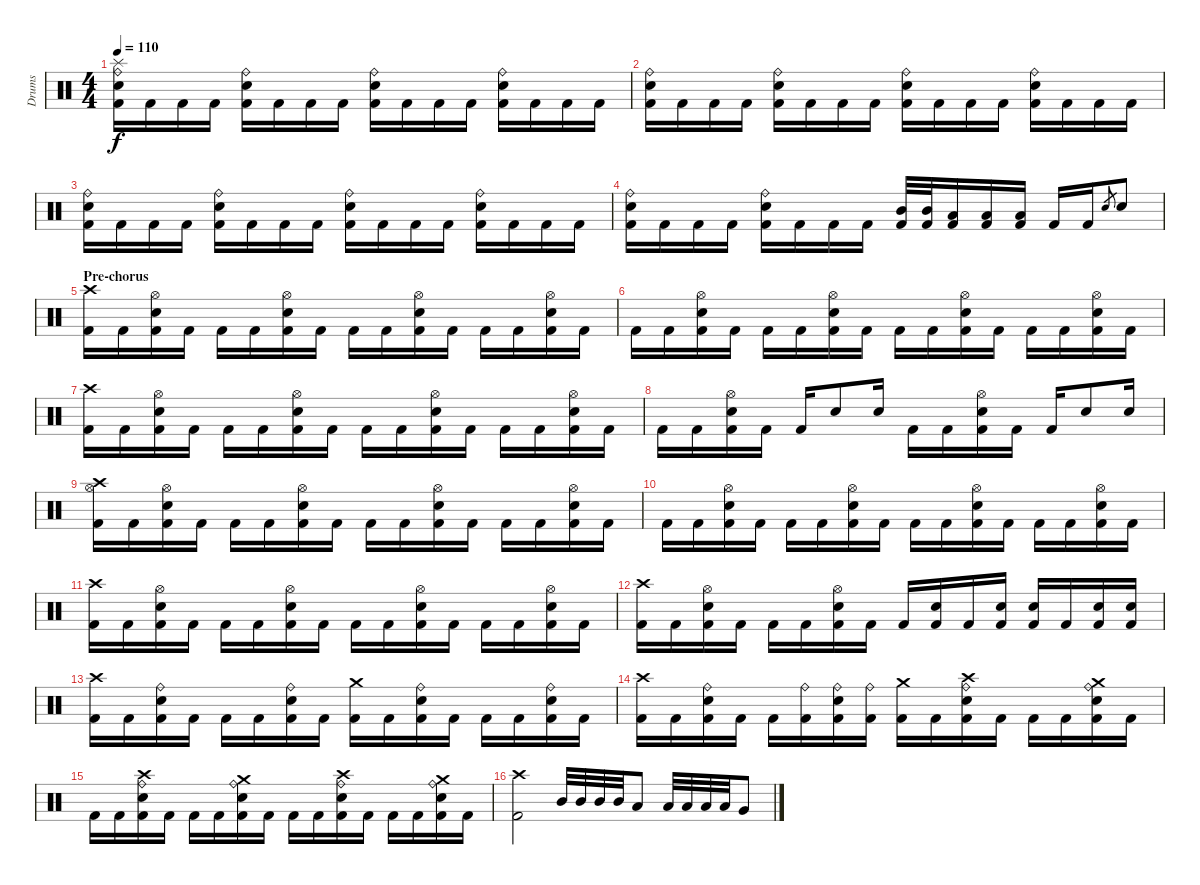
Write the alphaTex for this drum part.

\track ("Drums" "Drums") {instrument percussion}
\staff {score}
\articulation defaults
\ts (4 4)
\tempo 110
\clef neutral
\ks c
("Kick (hit) 2" "Electric Snare (hit)" "Ride (bell)" "Splash (hit)").16{dy f} "Kick (hit) 2".16 "Kick (hit) 2".16 "Kick (hit) 2".16 ("Kick (hit) 2" "Electric Snare (hit)" "Ride (bell)").16 "Kick (hit) 2".16 "Kick (hit) 2".16 "Kick (hit) 2".16 ("Kick (hit) 2" "Electric Snare (hit)" "Ride (bell)").16 "Kick (hit) 2".16 "Kick (hit) 2".16 "Kick (hit) 2".16 ("Kick (hit) 2" "Electric Snare (hit)" "Ride (bell)").16 "Kick (hit) 2".16 "Kick (hit) 2".16 "Kick (hit) 2".16 |
("Kick (hit) 2" "Electric Snare (hit)" "Ride (bell)").16 "Kick (hit) 2".16 "Kick (hit) 2".16 "Kick (hit) 2".16 ("Kick (hit) 2" "Electric Snare (hit)" "Ride (bell)").16 "Kick (hit) 2".16 "Kick (hit) 2".16 "Kick (hit) 2".16 ("Kick (hit) 2" "Electric Snare (hit)" "Ride (bell)").16 "Kick (hit) 2".16 "Kick (hit) 2".16 "Kick (hit) 2".16 ("Kick (hit) 2" "Electric Snare (hit)" "Ride (bell)").16 "Kick (hit) 2".16 "Kick (hit) 2".16 "Kick (hit) 2".16 |
("Kick (hit) 2" "Electric Snare (hit)" "Ride (bell)").16 "Kick (hit) 2".16 "Kick (hit) 2".16 "Kick (hit) 2".16 ("Kick (hit) 2" "Electric Snare (hit)" "Ride (bell)").16 "Kick (hit) 2".16 "Kick (hit) 2".16 "Kick (hit) 2".16 ("Kick (hit) 2" "Electric Snare (hit)" "Ride (bell)").16 "Kick (hit) 2".16 "Kick (hit) 2".16 "Kick (hit) 2".16 ("Kick (hit) 2" "Electric Snare (hit)" "Ride (bell)").16 "Kick (hit) 2".16 "Kick (hit) 2".16 "Kick (hit) 2".16 |
("Kick (hit) 2" "Electric Snare (hit)" "Ride (bell)").16 "Kick (hit) 2".16 "Kick (hit) 2".16 "Kick (hit) 2".16 ("Kick (hit) 2" "Electric Snare (hit)" "Ride (bell)").16 "Kick (hit) 2".16 "Kick (hit) 2".16 "Kick (hit) 2".16 ("Kick (hit) 2" "Mid Tom (hit)").32 ("Kick (hit) 2" "Mid Tom (hit)").32 ("Kick (hit) 2" "Low Tom (hit)").16 ("Kick (hit) 2" "Low Tom (hit)").16 ("Kick (hit) 2" "Low Tom (hit)").16 "Kick (hit) 2".16 "Kick (hit) 2".16 "Electric Snare (hit)".8{gr} "Electric Snare (hit)".8 |
\section ("" "Pre-chorus")
("Kick (hit) 2" "Crash high (hit)").16 "Kick (hit) 2".16 ("Kick (hit) 2" "Electric Snare (hit)" "Hi-Hat (open)").16 "Kick (hit) 2".16 "Kick (hit) 2".16 "Kick (hit) 2".16 ("Kick (hit) 2" "Electric Snare (hit)" "Hi-Hat (open)").16 "Kick (hit) 2".16 "Kick (hit) 2".16 "Kick (hit) 2".16 ("Kick (hit) 2" "Electric Snare (hit)" "Hi-Hat (open)").16 "Kick (hit) 2".16 "Kick (hit) 2".16 "Kick (hit) 2".16 ("Kick (hit) 2" "Electric Snare (hit)" "Hi-Hat (open)").16 "Kick (hit) 2".16 |
"Kick (hit) 2".16 "Kick (hit) 2".16 ("Kick (hit) 2" "Electric Snare (hit)" "Hi-Hat (open)").16 "Kick (hit) 2".16 "Kick (hit) 2".16 "Kick (hit) 2".16 ("Kick (hit) 2" "Electric Snare (hit)" "Hi-Hat (open)").16 "Kick (hit) 2".16 "Kick (hit) 2".16 "Kick (hit) 2".16 ("Kick (hit) 2" "Electric Snare (hit)" "Hi-Hat (open)").16 "Kick (hit) 2".16 "Kick (hit) 2".16 "Kick (hit) 2".16 ("Kick (hit) 2" "Electric Snare (hit)" "Hi-Hat (open)").16 "Kick (hit) 2".16 |
("Kick (hit) 2" "Crash high (hit)").16 "Kick (hit) 2".16 ("Kick (hit) 2" "Electric Snare (hit)" "Hi-Hat (open)").16 "Kick (hit) 2".16 "Kick (hit) 2".16 "Kick (hit) 2".16 ("Kick (hit) 2" "Electric Snare (hit)" "Hi-Hat (open)").16 "Kick (hit) 2".16 "Kick (hit) 2".16 "Kick (hit) 2".16 ("Kick (hit) 2" "Electric Snare (hit)" "Hi-Hat (open)").16 "Kick (hit) 2".16 "Kick (hit) 2".16 "Kick (hit) 2".16 ("Kick (hit) 2" "Electric Snare (hit)" "Hi-Hat (open)").16 "Kick (hit) 2".16 |
"Kick (hit) 2".16 "Kick (hit) 2".16 ("Kick (hit) 2" "Electric Snare (hit)" "Hi-Hat (open)").16 "Kick (hit) 2".16 "Kick (hit) 2".16 "Electric Snare (hit)".8 "Electric Snare (hit)".16 "Kick (hit) 2".16 "Kick (hit) 2".16 ("Kick (hit) 2" "Electric Snare (hit)" "Hi-Hat (open)").16 "Kick (hit) 2".16 "Kick (hit) 2".16 "Electric Snare (hit)".8 "Electric Snare (hit)".16 |
("Kick (hit) 2" "Hi-Hat (open)" "Crash high (hit)").16 "Kick (hit) 2".16 ("Kick (hit) 2" "Electric Snare (hit)" "Hi-Hat (open)").16 "Kick (hit) 2".16 "Kick (hit) 2".16 "Kick (hit) 2".16 ("Kick (hit) 2" "Electric Snare (hit)" "Hi-Hat (open)").16 "Kick (hit) 2".16 "Kick (hit) 2".16 "Kick (hit) 2".16 ("Kick (hit) 2" "Electric Snare (hit)" "Hi-Hat (open)").16 "Kick (hit) 2".16 "Kick (hit) 2".16 "Kick (hit) 2".16 ("Kick (hit) 2" "Electric Snare (hit)" "Hi-Hat (open)").16 "Kick (hit) 2".16 |
"Kick (hit) 2".16 "Kick (hit) 2".16 ("Kick (hit) 2" "Electric Snare (hit)" "Hi-Hat (open)").16 "Kick (hit) 2".16 "Kick (hit) 2".16 "Kick (hit) 2".16 ("Kick (hit) 2" "Electric Snare (hit)" "Hi-Hat (open)").16 "Kick (hit) 2".16 "Kick (hit) 2".16 "Kick (hit) 2".16 ("Kick (hit) 2" "Electric Snare (hit)" "Hi-Hat (open)").16 "Kick (hit) 2".16 "Kick (hit) 2".16 "Kick (hit) 2".16 ("Kick (hit) 2" "Electric Snare (hit)" "Hi-Hat (open)").16 "Kick (hit) 2".16 |
("Kick (hit) 2" "Crash high (hit)").16 "Kick (hit) 2".16 ("Kick (hit) 2" "Electric Snare (hit)" "Hi-Hat (open)").16 "Kick (hit) 2".16 "Kick (hit) 2".16 "Kick (hit) 2".16 ("Kick (hit) 2" "Electric Snare (hit)" "Hi-Hat (open)").16 "Kick (hit) 2".16 "Kick (hit) 2".16 "Kick (hit) 2".16 ("Kick (hit) 2" "Electric Snare (hit)" "Hi-Hat (open)").16 "Kick (hit) 2".16 "Kick (hit) 2".16 "Kick (hit) 2".16 ("Kick (hit) 2" "Electric Snare (hit)" "Hi-Hat (open)").16 "Kick (hit) 2".16 |
("Kick (hit) 2" "Crash high (hit)").16 "Kick (hit) 2".16 ("Kick (hit) 2" "Electric Snare (hit)" "Hi-Hat (open)").16 "Kick (hit) 2".16 "Kick (hit) 2".16 "Kick (hit) 2".16 ("Kick (hit) 2" "Electric Snare (hit)" "Hi-Hat (open)").16 "Kick (hit) 2".16 "Kick (hit) 2".16 ("Kick (hit) 2" "Electric Snare (hit)").16 "Kick (hit) 2".16 ("Kick (hit) 2" "Electric Snare (hit)").16 ("Kick (hit) 2" "Electric Snare (hit)").16 "Kick (hit) 2".16 ("Kick (hit) 2" "Electric Snare (hit)").16 ("Kick (hit) 2" "Electric Snare (hit)").16 |
("Kick (hit) 2" "Crash high (hit)").16 "Kick (hit) 2".16 ("Kick (hit) 2" "Electric Snare (hit)" "Ride (bell)").16 "Kick (hit) 2".16 "Kick (hit) 2".16 "Kick (hit) 2".16 ("Kick (hit) 2" "Electric Snare (hit)" "Ride (bell)").16 "Kick (hit) 2".16 ("Kick (hit) 2" "Crash medium (hit)").16 "Kick (hit) 2".16 ("Kick (hit) 2" "Electric Snare (hit)" "Ride (bell)").16 "Kick (hit) 2".16 "Kick (hit) 2".16 "Kick (hit) 2".16 ("Kick (hit) 2" "Electric Snare (hit)" "Ride (bell)").16 "Kick (hit) 2".16 |
("Kick (hit) 2" "Crash high (hit)").16 "Kick (hit) 2".16 ("Kick (hit) 2" "Electric Snare (hit)" "Ride (bell)").16 "Kick (hit) 2".16 "Kick (hit) 2".16 ("Kick (hit) 2" "Ride (bell)").16 ("Kick (hit) 2" "Electric Snare (hit)" "Ride (bell)").16 ("Kick (hit) 2" "Ride (bell)").16 ("Kick (hit) 2" "Crash medium (hit)").16 "Kick (hit) 2".16 ("Kick (hit) 2" "Electric Snare (hit)" "Ride (bell)" "Crash high (hit)").16 "Kick (hit) 2".16 "Kick (hit) 2".16 "Kick (hit) 2".16 ("Kick (hit) 2" "Electric Snare (hit)" "Ride (bell)" "Crash medium (hit)").16 "Kick (hit) 2".16 |
"Kick (hit) 2".16 "Kick (hit) 2".16 ("Kick (hit) 2" "Electric Snare (hit)" "Ride (bell)" "Crash high (hit)").16 "Kick (hit) 2".16 "Kick (hit) 2".16 "Kick (hit) 2".16 ("Kick (hit) 2" "Electric Snare (hit)" "Ride (bell)" "Crash medium (hit)").16 "Kick (hit) 2".16 "Kick (hit) 2".16 "Kick (hit) 2".16 ("Kick (hit) 2" "Electric Snare (hit)" "Ride (bell)" "Crash high (hit)").16 "Kick (hit) 2".16 "Kick (hit) 2".16 "Kick (hit) 2".16 ("Kick (hit) 2" "Electric Snare (hit)" "Ride (bell)" "Crash medium (hit)").16 "Kick (hit) 2".16 |
("Kick (hit) 2" "Crash high (hit)").2 "Mid Tom (hit)".32 "Mid Tom (hit)".32 "Mid Tom (hit)".32 "Mid Tom (hit)".32 "Low Tom (hit)".8 "Low Tom (hit)".32 "Low Tom (hit)".32 "Low Tom (hit)".32 "Low Tom (hit)".32 "Very Low Tom (hit)".8
